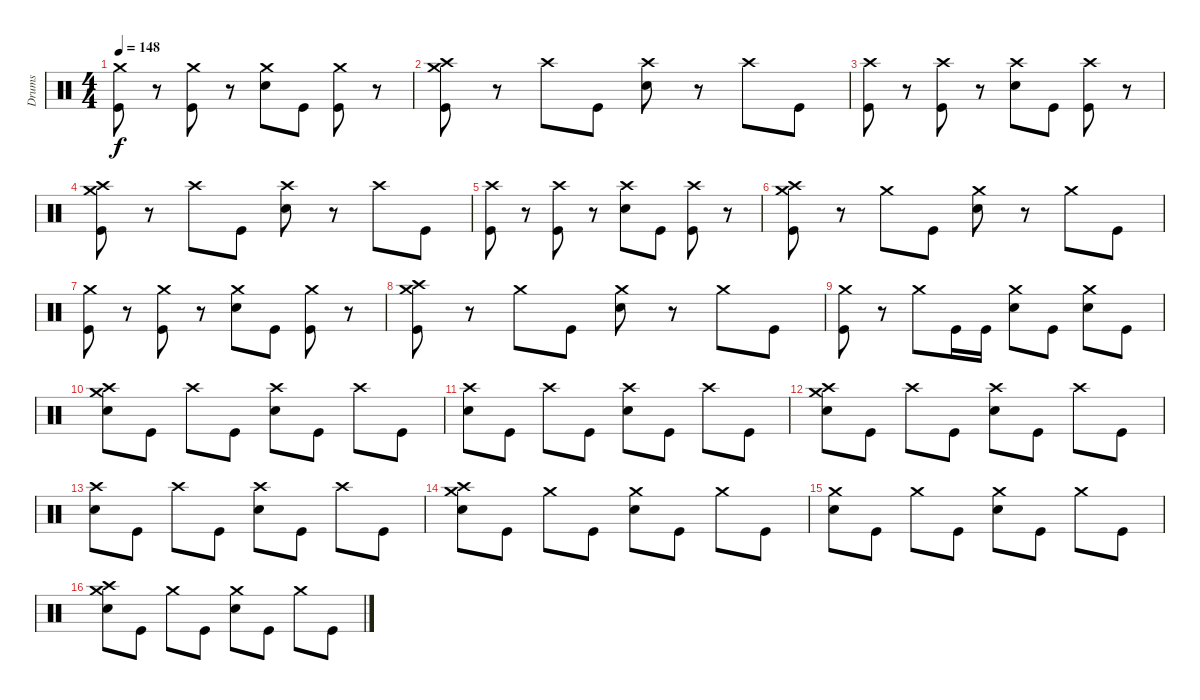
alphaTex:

\track ("Drums" "Drums") {instrument percussion}
\staff {score}
\articulation defaults
\ts (4 4)
\tempo 148
\clef neutral
\ks c
("Crash medium (hit)" "Kick (hit)").8{dy f} r.8 ("Crash medium (hit)" "Kick (hit)").8 r.8 ("Crash medium (hit)" "Electric Snare (hit)").8 "Kick (hit)".8 ("Crash medium (hit)" "Kick (hit)").8 r.8 |
("Crash medium (hit)" "Crash high (hit)" "Kick (hit)").8 r.8 "Crash high (hit)".8 "Kick (hit)".8 ("Crash high (hit)" "Electric Snare (hit)").8 r.8 "Crash high (hit)".8 "Kick (hit)".8 |
("Crash high (hit)" "Kick (hit)").8 r.8 ("Crash high (hit)" "Kick (hit)").8 r.8 ("Crash high (hit)" "Electric Snare (hit)").8 "Kick (hit)".8 ("Crash high (hit)" "Kick (hit)").8 r.8 |
("Crash medium (hit)" "Crash high (hit)" "Kick (hit)").8 r.8 "Crash high (hit)".8 "Kick (hit)".8 ("Crash high (hit)" "Electric Snare (hit)").8 r.8 "Crash high (hit)".8 "Kick (hit)".8 |
("Crash high (hit)" "Kick (hit)").8 r.8 ("Crash high (hit)" "Kick (hit)").8 r.8 ("Crash high (hit)" "Electric Snare (hit)").8 "Kick (hit)".8 ("Crash high (hit)" "Kick (hit)").8 r.8 |
("Crash high (hit)" "Crash medium (hit)" "Kick (hit)").8 r.8 "Crash medium (hit)".8 "Kick (hit)".8 ("Crash medium (hit)" "Electric Snare (hit)").8 r.8 "Crash medium (hit)".8 "Kick (hit)".8 |
("Crash medium (hit)" "Kick (hit)").8 r.8 ("Crash medium (hit)" "Kick (hit)").8 r.8 ("Crash medium (hit)" "Electric Snare (hit)").8 "Kick (hit)".8 ("Crash medium (hit)" "Kick (hit)").8 r.8 |
("Crash high (hit)" "Crash medium (hit)" "Kick (hit)").8 r.8 "Crash medium (hit)".8 "Kick (hit)".8 ("Crash medium (hit)" "Electric Snare (hit)").8 r.8 "Crash medium (hit)".8 "Kick (hit)".8 |
("Crash medium (hit)" "Kick (hit)").8 r.8 "Crash medium (hit)".8 "Kick (hit)".16 "Kick (hit)".16 ("Crash medium (hit)" "Electric Snare (hit)").8 "Kick (hit)".8 ("Crash medium (hit)" "Electric Snare (hit)").8 "Kick (hit)".8 |
("Crash medium (hit)" "Crash high (hit)" "Electric Snare (hit)").8 "Kick (hit)".8 "Crash high (hit)".8 "Kick (hit)".8 ("Crash high (hit)" "Electric Snare (hit)").8 "Kick (hit)".8 "Crash high (hit)".8 "Kick (hit)".8 |
("Crash high (hit)" "Electric Snare (hit)").8 "Kick (hit)".8 "Crash high (hit)".8 "Kick (hit)".8 ("Crash high (hit)" "Electric Snare (hit)").8 "Kick (hit)".8 "Crash high (hit)".8 "Kick (hit)".8 |
("Crash medium (hit)" "Crash high (hit)" "Electric Snare (hit)").8 "Kick (hit)".8 "Crash high (hit)".8 "Kick (hit)".8 ("Crash high (hit)" "Electric Snare (hit)").8 "Kick (hit)".8 "Crash high (hit)".8 "Kick (hit)".8 |
("Crash high (hit)" "Electric Snare (hit)").8 "Kick (hit)".8 "Crash high (hit)".8 "Kick (hit)".8 ("Crash high (hit)" "Electric Snare (hit)").8 "Kick (hit)".8 "Crash high (hit)".8 "Kick (hit)".8 |
("Crash high (hit)" "Crash medium (hit)" "Electric Snare (hit)").8 "Kick (hit)".8 "Crash medium (hit)".8 "Kick (hit)".8 ("Crash medium (hit)" "Electric Snare (hit)").8 "Kick (hit)".8 "Crash medium (hit)".8 "Kick (hit)".8 |
("Crash medium (hit)" "Electric Snare (hit)").8 "Kick (hit)".8 "Crash medium (hit)".8 "Kick (hit)".8 ("Crash medium (hit)" "Electric Snare (hit)").8 "Kick (hit)".8 "Crash medium (hit)".8 "Kick (hit)".8 |
("Crash high (hit)" "Crash medium (hit)" "Electric Snare (hit)").8 "Kick (hit)".8 "Crash medium (hit)".8 "Kick (hit)".8 ("Crash medium (hit)" "Electric Snare (hit)").8 "Kick (hit)".8 "Crash medium (hit)".8 "Kick (hit)".8
